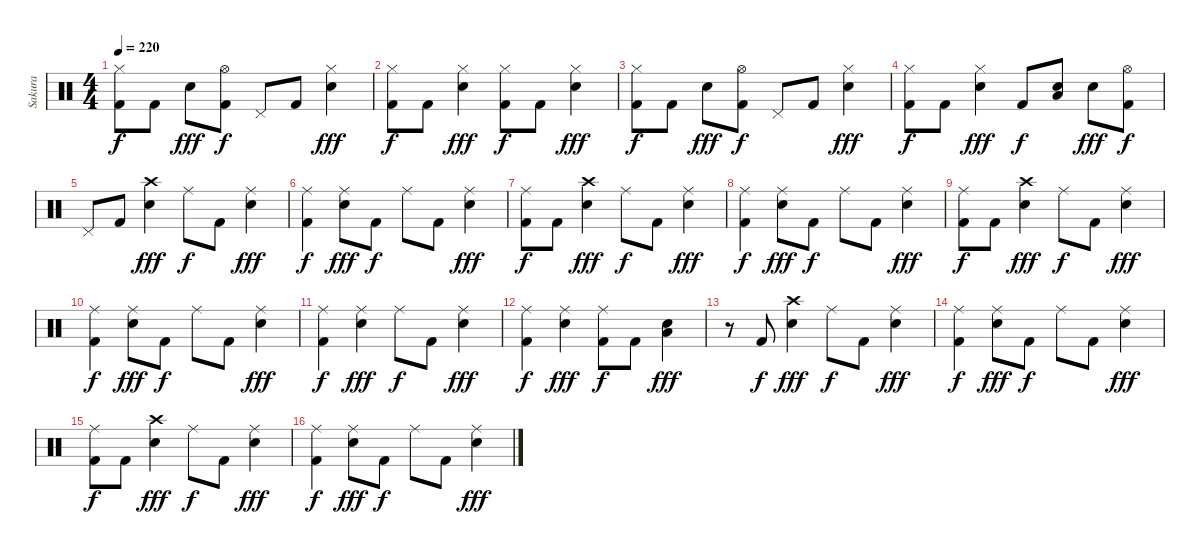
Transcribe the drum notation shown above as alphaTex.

\track ("Sakura" "Sakura") {instrument percussion}
\staff {score}
\articulation defaults
\ts (4 4)
\tempo 220
\clef neutral
\ks c
("Hi-Hat (closed)" "Kick (hit) 2").8{dy f} "Kick (hit) 2".8 "Electric Snare (hit)".8{dy fff} ("Hi-Hat (open)" "Kick (hit) 2").8{dy f} "Pedal Hi-Hat (hit)".8 "Kick (hit) 2".8 ("Hi-Hat (closed)" "Electric Snare (hit)").4{dy fff} |
("Hi-Hat (closed)" "Kick (hit) 2").8{dy f} "Kick (hit) 2".8 ("Hi-Hat (closed)" "Electric Snare (hit)").4{dy fff} ("Hi-Hat (closed)" "Kick (hit) 2").8{dy f} "Kick (hit) 2".8 ("Hi-Hat (closed)" "Electric Snare (hit)").4{dy fff} |
("Hi-Hat (closed)" "Kick (hit) 2").8{dy f} "Kick (hit) 2".8 "Electric Snare (hit)".8{dy fff} ("Hi-Hat (open)" "Kick (hit) 2").8{dy f} "Pedal Hi-Hat (hit)".8 "Kick (hit) 2".8 ("Hi-Hat (closed)" "Electric Snare (hit)").4{dy fff} |
("Hi-Hat (closed)" "Kick (hit) 2").8{dy f} "Kick (hit) 2".8 ("Hi-Hat (closed)" "Electric Snare (hit)").4{dy fff} "Kick (hit) 2".8{dy f} ("Electric Snare (hit)" "Low Tom (hit)").8 "Electric Snare (hit)".8{dy fff} ("Hi-Hat (open)" "Kick (hit) 2").8{dy f} |
"Pedal Hi-Hat (hit)".8 "Kick (hit) 2".8 ("Crash high (hit)" "Electric Snare (hit)").4{dy fff} "Ride (middle)".8{dy f} "Kick (hit) 2".8 ("Ride (middle)" "Electric Snare (hit)").4{dy fff} |
("Ride (middle)" "Kick (hit) 2").4{dy f} ("Ride (middle)" "Electric Snare (hit)").8{dy fff} "Kick (hit) 2".8{dy f} "Ride (middle)".8 "Kick (hit) 2".8 ("Ride (middle)" "Electric Snare (hit)").4{dy fff} |
("Ride (middle)" "Kick (hit) 2").8{dy f} "Kick (hit) 2".8 ("Crash high (hit)" "Electric Snare (hit)").4{dy fff} "Ride (middle)".8{dy f} "Kick (hit) 2".8 ("Ride (middle)" "Electric Snare (hit)").4{dy fff} |
("Ride (middle)" "Kick (hit) 2").4{dy f} ("Ride (middle)" "Electric Snare (hit)").8{dy fff} "Kick (hit) 2".8{dy f} "Ride (middle)".8 "Kick (hit) 2".8 ("Ride (middle)" "Electric Snare (hit)").4{dy fff} |
("Ride (middle)" "Kick (hit) 2").8{dy f} "Kick (hit) 2".8 ("Crash high (hit)" "Electric Snare (hit)").4{dy fff} "Ride (middle)".8{dy f} "Kick (hit) 2".8 ("Ride (middle)" "Electric Snare (hit)").4{dy fff} |
("Ride (middle)" "Kick (hit) 2").4{dy f} ("Ride (middle)" "Electric Snare (hit)").8{dy fff} "Kick (hit) 2".8{dy f} "Ride (middle)".8 "Kick (hit) 2".8 ("Ride (middle)" "Electric Snare (hit)").4{dy fff} |
("Ride (middle)" "Kick (hit) 2").4{dy f} ("Ride (middle)" "Electric Snare (hit)").4{dy fff} "Ride (middle)".8{dy f} "Kick (hit) 2".8 ("Ride (middle)" "Electric Snare (hit)").4{dy fff} |
("Ride (middle)" "Kick (hit) 2").4{dy f} ("Ride (middle)" "Electric Snare (hit)").4{dy fff} ("Ride (middle)" "Kick (hit) 2").8{dy f} "Kick (hit) 2".8 ("Electric Snare (hit)" "Low Tom (hit)").4{dy fff} |
r.8 "Kick (hit) 2".8{dy f} ("Crash high (hit)" "Electric Snare (hit)").4{dy fff} "Ride (middle)".8{dy f} "Kick (hit) 2".8 ("Ride (middle)" "Electric Snare (hit)").4{dy fff} |
("Ride (middle)" "Kick (hit) 2").4{dy f} ("Ride (middle)" "Electric Snare (hit)").8{dy fff} "Kick (hit) 2".8{dy f} "Ride (middle)".8 "Kick (hit) 2".8 ("Ride (middle)" "Electric Snare (hit)").4{dy fff} |
("Ride (middle)" "Kick (hit) 2").8{dy f} "Kick (hit) 2".8 ("Crash high (hit)" "Electric Snare (hit)").4{dy fff} "Ride (middle)".8{dy f} "Kick (hit) 2".8 ("Ride (middle)" "Electric Snare (hit)").4{dy fff} |
("Ride (middle)" "Kick (hit) 2").4{dy f} ("Ride (middle)" "Electric Snare (hit)").8{dy fff} "Kick (hit) 2".8{dy f} "Ride (middle)".8 "Kick (hit) 2".8 ("Ride (middle)" "Electric Snare (hit)").4{dy fff}
